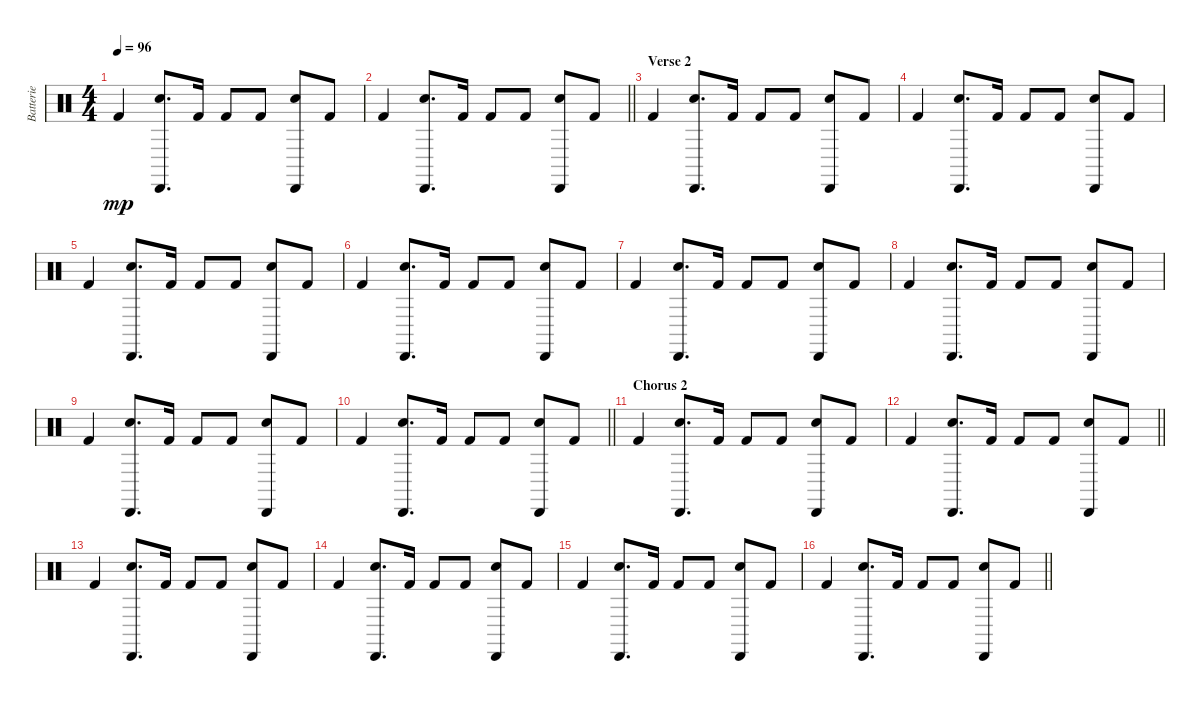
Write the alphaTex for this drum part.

\track ("Batterie" "Batterie") {instrument percussion}
\staff {score}
\articulation defaults
\ts (4 4)
\tempo 96
\clef neutral
\ks c "Kick (hit) 2".4{dy mp}
("Electric Snare (hit)" "Cabasa (hit)").8{d} "Kick (hit) 2".16 "Kick (hit) 2".8 "Kick (hit) 2".8 ("Cabasa (hit)" "Electric Snare (hit)").8 "Kick (hit) 2".8 |
\barLineRight lightlight "Kick (hit) 2".4
("Electric Snare (hit)" "Cabasa (hit)").8{d} "Kick (hit) 2".16 "Kick (hit) 2".8 "Kick (hit) 2".8 ("Cabasa (hit)" "Electric Snare (hit)").8 "Kick (hit) 2".8 |
\section ("" "Verse 2")
"Kick (hit) 2".4 ("Electric Snare (hit)" "Cabasa (hit)").8{d} "Kick (hit) 2".16 "Kick (hit) 2".8 "Kick (hit) 2".8 ("Cabasa (hit)" "Electric Snare (hit)").8 "Kick (hit) 2".8 |
"Kick (hit) 2".4 ("Electric Snare (hit)" "Cabasa (hit)").8{d} "Kick (hit) 2".16 "Kick (hit) 2".8 "Kick (hit) 2".8 ("Cabasa (hit)" "Electric Snare (hit)").8 "Kick (hit) 2".8 |
"Kick (hit) 2".4 ("Electric Snare (hit)" "Cabasa (hit)").8{d} "Kick (hit) 2".16 "Kick (hit) 2".8 "Kick (hit) 2".8 ("Cabasa (hit)" "Electric Snare (hit)").8 "Kick (hit) 2".8 |
"Kick (hit) 2".4 ("Electric Snare (hit)" "Cabasa (hit)").8{d} "Kick (hit) 2".16 "Kick (hit) 2".8 "Kick (hit) 2".8 ("Cabasa (hit)" "Electric Snare (hit)").8 "Kick (hit) 2".8 |
"Kick (hit) 2".4 ("Electric Snare (hit)" "Cabasa (hit)").8{d} "Kick (hit) 2".16 "Kick (hit) 2".8 "Kick (hit) 2".8 ("Cabasa (hit)" "Electric Snare (hit)").8 "Kick (hit) 2".8 |
"Kick (hit) 2".4 ("Electric Snare (hit)" "Cabasa (hit)").8{d} "Kick (hit) 2".16 "Kick (hit) 2".8 "Kick (hit) 2".8 ("Cabasa (hit)" "Electric Snare (hit)").8 "Kick (hit) 2".8 |
"Kick (hit) 2".4 ("Electric Snare (hit)" "Cabasa (hit)").8{d} "Kick (hit) 2".16 "Kick (hit) 2".8 "Kick (hit) 2".8 ("Cabasa (hit)" "Electric Snare (hit)").8 "Kick (hit) 2".8 |
\barLineRight lightlight "Kick (hit) 2".4
("Electric Snare (hit)" "Cabasa (hit)").8{d} "Kick (hit) 2".16 "Kick (hit) 2".8 "Kick (hit) 2".8 ("Cabasa (hit)" "Electric Snare (hit)").8 "Kick (hit) 2".8 |
\section ("" "Chorus 2")
"Kick (hit) 2".4 ("Electric Snare (hit)" "Cabasa (hit)").8{d} "Kick (hit) 2".16 "Kick (hit) 2".8 "Kick (hit) 2".8 ("Cabasa (hit)" "Electric Snare (hit)").8 "Kick (hit) 2".8 |
\barLineRight lightlight "Kick (hit) 2".4
("Electric Snare (hit)" "Cabasa (hit)").8{d} "Kick (hit) 2".16 "Kick (hit) 2".8 "Kick (hit) 2".8 ("Cabasa (hit)" "Electric Snare (hit)").8 "Kick (hit) 2".8 |
"Kick (hit) 2".4 ("Electric Snare (hit)" "Cabasa (hit)").8{d} "Kick (hit) 2".16 "Kick (hit) 2".8 "Kick (hit) 2".8 ("Cabasa (hit)" "Electric Snare (hit)").8 "Kick (hit) 2".8 |
"Kick (hit) 2".4 ("Electric Snare (hit)" "Cabasa (hit)").8{d} "Kick (hit) 2".16 "Kick (hit) 2".8 "Kick (hit) 2".8 ("Cabasa (hit)" "Electric Snare (hit)").8 "Kick (hit) 2".8 |
"Kick (hit) 2".4 ("Electric Snare (hit)" "Cabasa (hit)").8{d} "Kick (hit) 2".16 "Kick (hit) 2".8 "Kick (hit) 2".8 ("Cabasa (hit)" "Electric Snare (hit)").8 "Kick (hit) 2".8 |
\barLineRight lightlight "Kick (hit) 2".4
("Electric Snare (hit)" "Cabasa (hit)").8{d} "Kick (hit) 2".16 "Kick (hit) 2".8 "Kick (hit) 2".8 ("Cabasa (hit)" "Electric Snare (hit)").8 "Kick (hit) 2".8
